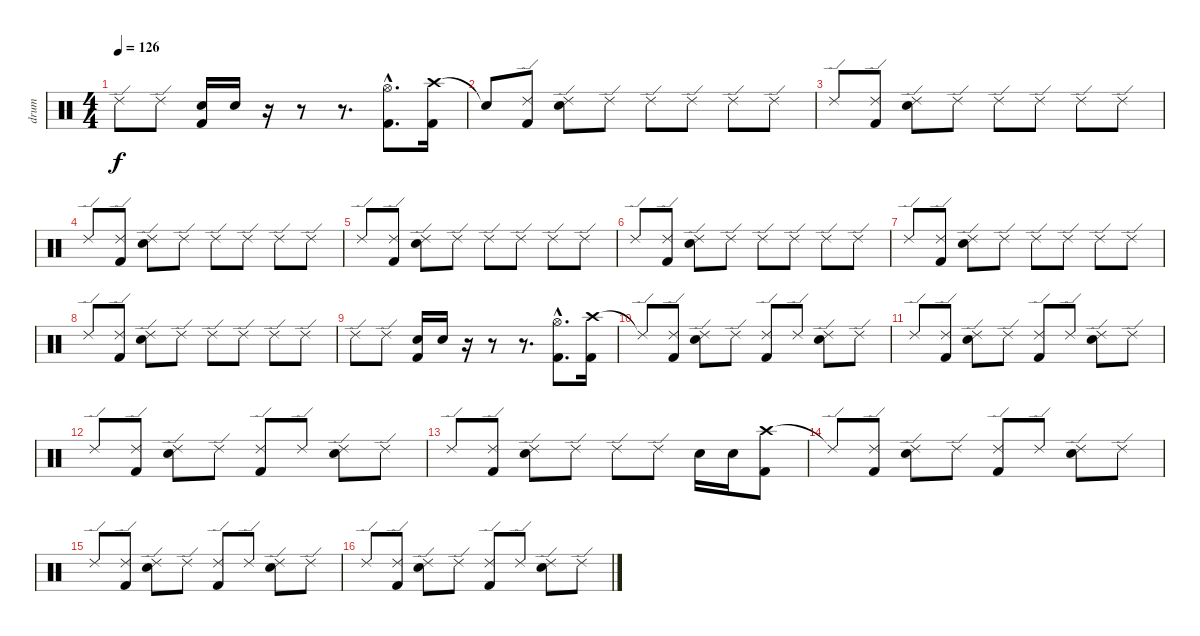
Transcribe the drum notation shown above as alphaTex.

\track ("drum" "drum") {instrument percussion}
\staff {score}
\articulation defaults
\ts (4 4)
\tempo 126
\clef neutral
\ks c "Ride (edge) 2".8{dy f} "Ride (edge) 2".8
("Electric Snare (hit)" "Kick (hit) 2").16 "Electric Snare (hit)".16 r.16 r.8 r.8{d} ("Hi-Hat (open)"{hac} "Kick (hit) 2"{hac}).8{d} ("Crash high (hit)" "Kick (hit) 2").16 |
"Snare (hit)"{t}.8 ("Ride (edge) 2" "Kick (hit) 2").8 ("Ride (edge) 2" "Electric Snare (hit)").8 "Ride (edge) 2".8 "Ride (edge) 2".8 "Ride (edge) 2".8 "Ride (edge) 2".8 "Ride (edge) 2".8 |
"Ride (edge) 2".8 ("Ride (edge) 2" "Kick (hit) 2").8 ("Ride (edge) 2" "Electric Snare (hit)").8 "Ride (edge) 2".8 "Ride (edge) 2".8 "Ride (edge) 2".8 "Ride (edge) 2".8 "Ride (edge) 2".8 |
"Ride (edge) 2".8 ("Ride (edge) 2" "Kick (hit) 2").8 ("Ride (edge) 2" "Electric Snare (hit)").8 "Ride (edge) 2".8 "Ride (edge) 2".8 "Ride (edge) 2".8 "Ride (edge) 2".8 "Ride (edge) 2".8 |
"Ride (edge) 2".8 ("Ride (edge) 2" "Kick (hit) 2").8 ("Ride (edge) 2" "Electric Snare (hit)").8 "Ride (edge) 2".8 "Ride (edge) 2".8 "Ride (edge) 2".8 "Ride (edge) 2".8 "Ride (edge) 2".8 |
"Ride (edge) 2".8 ("Ride (edge) 2" "Kick (hit) 2").8 ("Ride (edge) 2" "Electric Snare (hit)").8 "Ride (edge) 2".8 "Ride (edge) 2".8 "Ride (edge) 2".8 "Ride (edge) 2".8 "Ride (edge) 2".8 |
"Ride (edge) 2".8 ("Ride (edge) 2" "Kick (hit) 2").8 ("Ride (edge) 2" "Electric Snare (hit)").8 "Ride (edge) 2".8 "Ride (edge) 2".8 "Ride (edge) 2".8 "Ride (edge) 2".8 "Ride (edge) 2".8 |
"Ride (edge) 2".8 ("Ride (edge) 2" "Kick (hit) 2").8 ("Ride (edge) 2" "Electric Snare (hit)").8 "Ride (edge) 2".8 "Ride (edge) 2".8 "Ride (edge) 2".8 "Ride (edge) 2".8 "Ride (edge) 2".8 |
"Ride (edge) 2".8 "Ride (edge) 2".8 ("Electric Snare (hit)" "Kick (hit) 2").16 "Electric Snare (hit)".16 r.16 r.8 r.8{d} ("Hi-Hat (open)"{hac} "Kick (hit) 2"{hac}).8{d} ("Crash high (hit)" "Kick (hit) 2").16 |
"Ride (edge) 2"{t}.8 ("Ride (edge) 2" "Kick (hit) 2").8 ("Ride (edge) 2" "Electric Snare (hit)").8 "Ride (edge) 2".8 ("Ride (edge) 2" "Kick (hit) 2").8 "Ride (edge) 2".8 ("Ride (edge) 2" "Electric Snare (hit)").8 "Ride (edge) 2".8 |
"Ride (edge) 2".8 ("Ride (edge) 2" "Kick (hit) 2").8 ("Ride (edge) 2" "Electric Snare (hit)").8 "Ride (edge) 2".8 ("Ride (edge) 2" "Kick (hit) 2").8 "Ride (edge) 2".8 ("Ride (edge) 2" "Electric Snare (hit)").8 "Ride (edge) 2".8 |
"Ride (edge) 2".8 ("Ride (edge) 2" "Kick (hit) 2").8 ("Ride (edge) 2" "Electric Snare (hit)").8 "Ride (edge) 2".8 ("Ride (edge) 2" "Kick (hit) 2").8 "Ride (edge) 2".8 ("Ride (edge) 2" "Electric Snare (hit)").8 "Ride (edge) 2".8 |
"Ride (edge) 2".8 ("Ride (edge) 2" "Kick (hit) 2").8 ("Ride (edge) 2" "Electric Snare (hit)").8 "Ride (edge) 2".8 "Ride (edge) 2".8 "Ride (edge) 2".8 "Electric Snare (hit)".16 "Electric Snare (hit)".16 ("Crash high (hit)" "Kick (hit) 2").8 |
"Ride (edge) 2"{t}.8 ("Ride (edge) 2" "Kick (hit) 2").8 ("Ride (edge) 2" "Electric Snare (hit)").8 "Ride (edge) 2".8 ("Ride (edge) 2" "Kick (hit) 2").8 "Ride (edge) 2".8 ("Ride (edge) 2" "Electric Snare (hit)").8 "Ride (edge) 2".8 |
"Ride (edge) 2".8 ("Ride (edge) 2" "Kick (hit) 2").8 ("Ride (edge) 2" "Electric Snare (hit)").8 "Ride (edge) 2".8 ("Ride (edge) 2" "Kick (hit) 2").8 "Ride (edge) 2".8 ("Ride (edge) 2" "Electric Snare (hit)").8 "Ride (edge) 2".8 |
"Ride (edge) 2".8 ("Ride (edge) 2" "Kick (hit) 2").8 ("Ride (edge) 2" "Electric Snare (hit)").8 "Ride (edge) 2".8 ("Ride (edge) 2" "Kick (hit) 2").8 "Ride (edge) 2".8 ("Ride (edge) 2" "Electric Snare (hit)").8 "Ride (edge) 2".8
